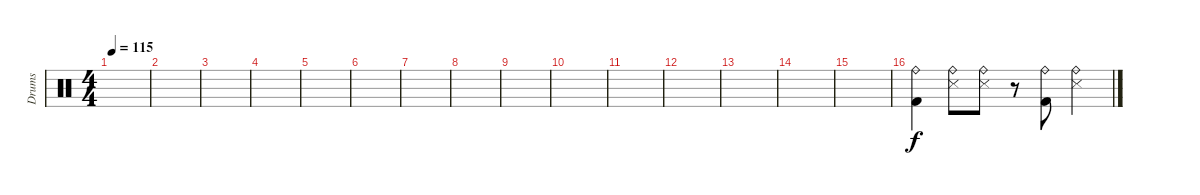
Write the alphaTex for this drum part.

\track ("Drums" "Drums") {instrument percussion}
\staff {score}
\articulation defaults
\ts (4 4)
\tempo 115
\clef neutral
\ks c
|
|
|
|
|
|
|
|
|
|
|
|
|
|
|
("Ride (bell)" "Kick (hit) 2").4 ("Ride (bell)" "Snare (side stick) 3").8 ("Ride (bell)" "Snare (side stick) 3").8 r.8 ("Ride (bell)" "Kick (hit) 2").8 ("Ride (bell)" "Snare (side stick) 3").4
